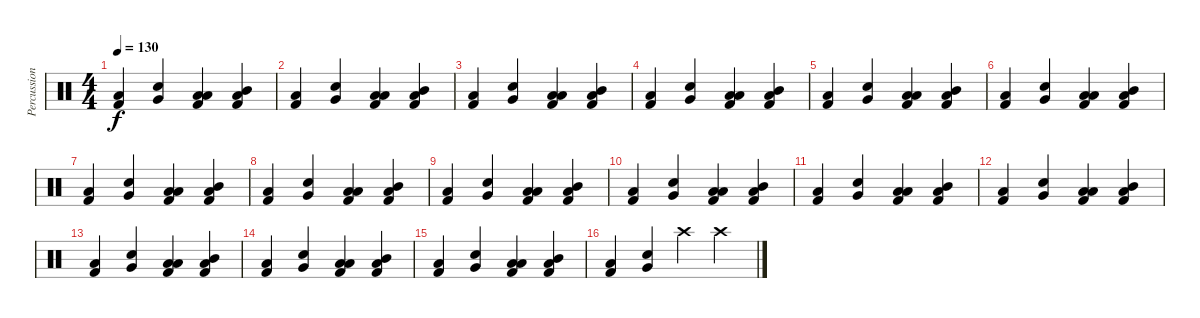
\track ("Percussion" "Percussion") {instrument percussion}
\staff {score}
\articulation defaults
\ts (4 4)
\tempo 130
\clef neutral
\ks c
("Kick (hit) 2" "Low Floor Tom (hit)").4{dy f} ("Very Low Tom (hit)" "Snare (hit) 2").4 ("Low Floor Tom (hit)" "Kick (hit) 2" "Low Tom (hit)").4 ("Low Tom (hit)" "Kick (hit) 2" "Mid Tom (hit)").4 |
("Kick (hit) 2" "Low Floor Tom (hit)").4 ("Very Low Tom (hit)" "Snare (hit) 2").4 ("Low Floor Tom (hit)" "Kick (hit) 2" "Low Tom (hit)").4 ("Low Tom (hit)" "Kick (hit) 2" "Mid Tom (hit)").4 |
("Kick (hit) 2" "Low Floor Tom (hit)").4 ("Very Low Tom (hit)" "Snare (hit) 2").4 ("Low Floor Tom (hit)" "Kick (hit) 2" "Low Tom (hit)").4 ("Low Tom (hit)" "Kick (hit) 2" "Mid Tom (hit)").4 |
("Kick (hit) 2" "Low Floor Tom (hit)").4 ("Very Low Tom (hit)" "Snare (hit) 2").4 ("Low Floor Tom (hit)" "Kick (hit) 2" "Low Tom (hit)").4 ("Low Tom (hit)" "Kick (hit) 2" "Mid Tom (hit)").4 |
("Kick (hit) 2" "Low Floor Tom (hit)").4 ("Very Low Tom (hit)" "Snare (hit) 2").4 ("Low Floor Tom (hit)" "Kick (hit) 2" "Low Tom (hit)").4 ("Low Tom (hit)" "Kick (hit) 2" "Mid Tom (hit)").4 |
("Kick (hit) 2" "Low Floor Tom (hit)").4 ("Very Low Tom (hit)" "Snare (hit) 2").4 ("Low Floor Tom (hit)" "Kick (hit) 2" "Low Tom (hit)").4 ("Low Tom (hit)" "Kick (hit) 2" "Mid Tom (hit)").4 |
("Kick (hit) 2" "Low Floor Tom (hit)").4 ("Very Low Tom (hit)" "Snare (hit) 2").4 ("Low Floor Tom (hit)" "Kick (hit) 2" "Low Tom (hit)").4 ("Low Tom (hit)" "Kick (hit) 2" "Mid Tom (hit)").4 |
("Kick (hit) 2" "Low Floor Tom (hit)").4 ("Very Low Tom (hit)" "Snare (hit) 2").4 ("Low Floor Tom (hit)" "Kick (hit) 2" "Low Tom (hit)").4 ("Low Tom (hit)" "Kick (hit) 2" "Mid Tom (hit)").4 |
("Kick (hit) 2" "Low Floor Tom (hit)").4 ("Very Low Tom (hit)" "Snare (hit) 2").4 ("Low Floor Tom (hit)" "Kick (hit) 2" "Low Tom (hit)").4 ("Low Tom (hit)" "Kick (hit) 2" "Mid Tom (hit)").4 |
("Kick (hit) 2" "Low Floor Tom (hit)").4 ("Very Low Tom (hit)" "Snare (hit) 2").4 ("Low Floor Tom (hit)" "Kick (hit) 2" "Low Tom (hit)").4 ("Low Tom (hit)" "Kick (hit) 2" "Mid Tom (hit)").4 |
("Kick (hit) 2" "Low Floor Tom (hit)").4 ("Very Low Tom (hit)" "Snare (hit) 2").4 ("Low Floor Tom (hit)" "Kick (hit) 2" "Low Tom (hit)").4 ("Low Tom (hit)" "Kick (hit) 2" "Mid Tom (hit)").4 |
("Kick (hit) 2" "Low Floor Tom (hit)").4 ("Very Low Tom (hit)" "Snare (hit) 2").4 ("Low Floor Tom (hit)" "Kick (hit) 2" "Low Tom (hit)").4 ("Low Tom (hit)" "Kick (hit) 2" "Mid Tom (hit)").4 |
("Kick (hit) 2" "Low Floor Tom (hit)").4 ("Very Low Tom (hit)" "Snare (hit) 2").4 ("Low Floor Tom (hit)" "Kick (hit) 2" "Low Tom (hit)").4 ("Low Tom (hit)" "Kick (hit) 2" "Mid Tom (hit)").4 |
("Kick (hit) 2" "Low Floor Tom (hit)").4 ("Very Low Tom (hit)" "Snare (hit) 2").4 ("Low Floor Tom (hit)" "Kick (hit) 2" "Low Tom (hit)").4 ("Low Tom (hit)" "Kick (hit) 2" "Mid Tom (hit)").4 |
("Kick (hit) 2" "Low Floor Tom (hit)").4 ("Very Low Tom (hit)" "Snare (hit) 2").4 ("Low Floor Tom (hit)" "Kick (hit) 2" "Low Tom (hit)").4 ("Low Tom (hit)" "Kick (hit) 2" "Mid Tom (hit)").4 |
("Kick (hit) 2" "Low Floor Tom (hit)").4 ("Very Low Tom (hit)" "Snare (hit) 2").4 "Crash high (hit)".4 "Crash high (hit)".4
